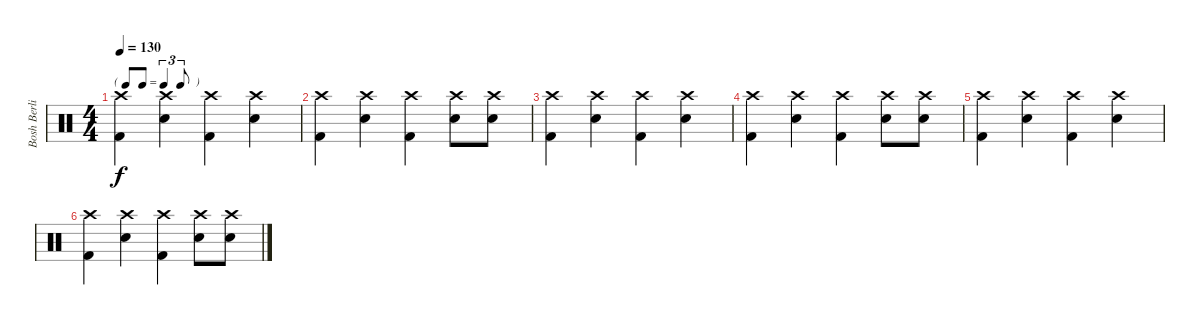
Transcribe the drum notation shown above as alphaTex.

\track ("Bosh Berlin" "Bosh Berli") {instrument percussion}
\staff {score}
\articulation defaults
\ts (4 4)
\tf triplet8th
\tempo 130
\clef neutral
\ks c
("Crash high (hit)" "Kick (hit) 2").4{dy f} ("Crash high (hit)" "Snare (hit) 2").4 ("Crash high (hit)" "Kick (hit) 2").4 ("Crash high (hit)" "Snare (hit) 2").4 |
("Crash high (hit)" "Kick (hit) 2").4 ("Crash high (hit)" "Snare (hit) 2").4 ("Crash high (hit)" "Kick (hit) 2").4 ("Crash high (hit)" "Snare (hit) 2").8 ("Crash high (hit)" "Snare (hit) 2").8 |
("Crash high (hit)" "Kick (hit) 2").4 ("Crash high (hit)" "Snare (hit) 2").4 ("Crash high (hit)" "Kick (hit) 2").4 ("Crash high (hit)" "Snare (hit) 2").4 |
("Crash high (hit)" "Kick (hit) 2").4 ("Crash high (hit)" "Snare (hit) 2").4 ("Crash high (hit)" "Kick (hit) 2").4 ("Crash high (hit)" "Snare (hit) 2").8 ("Crash high (hit)" "Snare (hit) 2").8 |
("Crash high (hit)" "Kick (hit) 2").4 ("Crash high (hit)" "Snare (hit) 2").4 ("Crash high (hit)" "Kick (hit) 2").4 ("Crash high (hit)" "Snare (hit) 2").4 |
("Crash high (hit)" "Kick (hit) 2").4 ("Crash high (hit)" "Snare (hit) 2").4 ("Crash high (hit)" "Kick (hit) 2").4 ("Crash high (hit)" "Snare (hit) 2").8 ("Crash high (hit)" "Snare (hit) 2").8
